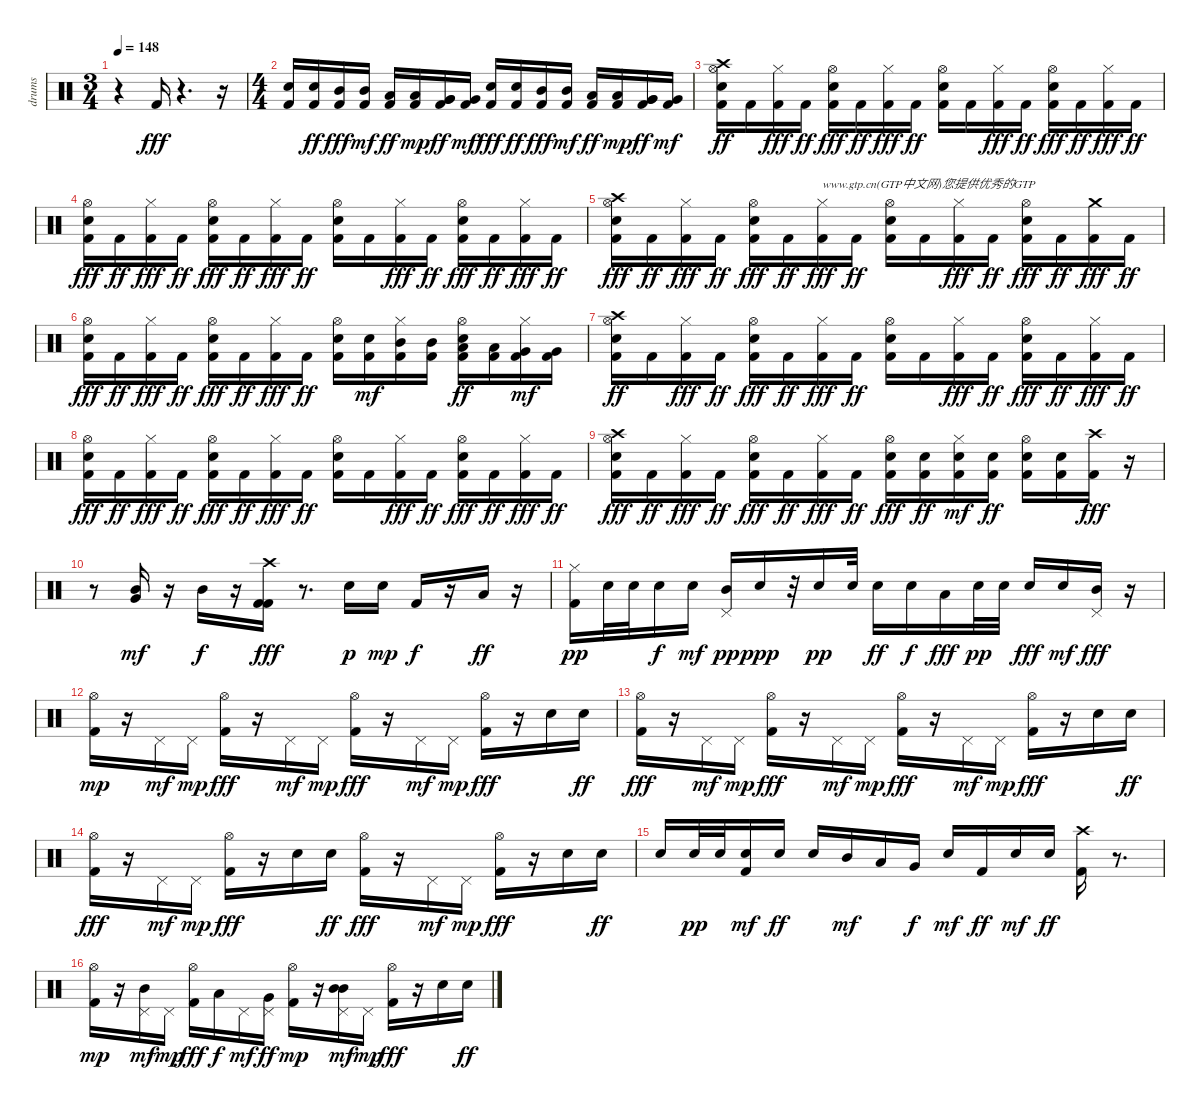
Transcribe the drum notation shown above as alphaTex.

\track ("drums" "drums") {instrument percussion}
\staff {score}
\articulation defaults
\ts (3 4)
\tempo 148
\clef neutral
\ks c
r.4{dy fff} "Kick (hit) 2".16 r.4{d} r.16 |
\ts (4 4)
("Kick (hit) 2" "Snare (hit) 2").16 ("Snare (hit) 2" "Kick (hit) 2").16{dy ff} ("Kick (hit) 2" "Mid Tom (hit)").16{dy fff} ("Kick (hit) 2" "Mid Tom (hit)").16{dy mf} ("Kick (hit) 2" "Low Tom (hit)").16{dy ff} ("Kick (hit) 2" "Low Tom (hit)").16{dy mp} ("Kick (hit) 2" "Very Low Tom (hit)" "Very Low Tom (hit)").16{dy ff} ("Kick (hit) 2" "Very Low Tom (hit)").16{dy mf} ("Kick (hit) 2" "Snare (hit) 2").16{dy fff} ("Snare (hit) 2" "Kick (hit) 2").16{dy ff} ("Kick (hit) 2" "Mid Tom (hit)").16{dy fff} ("Kick (hit) 2" "Mid Tom (hit)").16{dy mf} ("Kick (hit) 2" "Low Tom (hit)").16{dy ff} ("Kick (hit) 2" "Low Tom (hit)").16{dy mp} ("Kick (hit) 2" "Very Low Tom (hit)" "Very Low Tom (hit)").16{dy ff} ("Kick (hit) 2" "Very Low Tom (hit)").16{dy mf} |
("Hi-Hat (open)" "Crash high (hit)" "Kick (hit) 2" "Electric Snare (hit)").16{dy ff} "Kick (hit) 2".16 ("Hi-Hat (closed)" "Kick (hit) 2").16{dy fff} "Kick (hit) 2".16{dy ff} ("Hi-Hat (open)" "Electric Snare (hit)" "Kick (hit) 2").16{dy fff} "Kick (hit) 2".16{dy ff} ("Hi-Hat (closed)" "Kick (hit) 2").16{dy fff} "Kick (hit) 2".16{dy ff} ("Hi-Hat (open)" "Kick (hit) 2" "Electric Snare (hit)").16 "Kick (hit) 2".16 ("Hi-Hat (closed)" "Kick (hit) 2").16{dy fff} "Kick (hit) 2".16{dy ff} ("Hi-Hat (open)" "Electric Snare (hit)" "Kick (hit) 2").16{dy fff} "Kick (hit) 2".16{dy ff} ("Hi-Hat (closed)" "Kick (hit) 2").16{dy fff} "Kick (hit) 2".16{dy ff} |
("Hi-Hat (open)" "Electric Snare (hit)" "Kick (hit) 2").16{dy fff} "Kick (hit) 2".16{dy ff} ("Hi-Hat (closed)" "Kick (hit) 2").16{dy fff} "Kick (hit) 2".16{dy ff} ("Hi-Hat (open)" "Electric Snare (hit)" "Kick (hit) 2").16{dy fff} "Kick (hit) 2".16{dy ff} ("Hi-Hat (closed)" "Kick (hit) 2").16{dy fff} "Kick (hit) 2".16{dy ff} ("Hi-Hat (open)" "Kick (hit) 2" "Electric Snare (hit)").16 "Kick (hit) 2".16 ("Hi-Hat (closed)" "Kick (hit) 2").16{dy fff} "Kick (hit) 2".16{dy ff} ("Hi-Hat (open)" "Electric Snare (hit)" "Kick (hit) 2").16{dy fff} "Kick (hit) 2".16{dy ff} ("Hi-Hat (closed)" "Kick (hit) 2").16{dy fff} "Kick (hit) 2".16{dy ff} |
("Hi-Hat (open)" "Crash high (hit)" "Electric Snare (hit)" "Kick (hit) 2").16{dy fff} "Kick (hit) 2".16{dy ff} ("Hi-Hat (closed)" "Kick (hit) 2").16{dy fff} "Kick (hit) 2".16{dy ff} ("Hi-Hat (open)" "Electric Snare (hit)" "Kick (hit) 2").16{dy fff} "Kick (hit) 2".16{dy ff} ("Hi-Hat (closed)" "Kick (hit) 2").16{txt "www.gtp.cn(GTP中文网)您提供优秀的GTP" dy fff} "Kick (hit) 2".16{dy ff} ("Hi-Hat (open)" "Kick (hit) 2" "Electric Snare (hit)").16 "Kick (hit) 2".16 ("Hi-Hat (closed)" "Kick (hit) 2").16{dy fff} "Kick (hit) 2".16{dy ff} ("Hi-Hat (open)" "Electric Snare (hit)" "Kick (hit) 2").16{dy fff} "Kick (hit) 2".16{dy ff} ("Kick (hit) 2" "Crash medium (hit)").16{dy fff} "Kick (hit) 2".16{dy ff} |
("Hi-Hat (open)" "Electric Snare (hit)" "Kick (hit) 2").16{dy fff} "Kick (hit) 2".16{dy ff} ("Hi-Hat (closed)" "Kick (hit) 2").16{dy fff} "Kick (hit) 2".16{dy ff} ("Hi-Hat (open)" "Electric Snare (hit)" "Kick (hit) 2").16{dy fff} "Kick (hit) 2".16{dy ff} ("Hi-Hat (closed)" "Kick (hit) 2").16{dy fff} "Kick (hit) 2".16{dy ff} ("Hi-Hat (open)" "Kick (hit) 2" "Electric Snare (hit)").16 ("Kick (hit) 2" "Snare (hit) 2").16{dy mf} ("Kick (hit) 2" "Mid Tom (hit)" "Hi-Hat (closed)").16 ("Kick (hit) 2" "Mid Tom (hit)").16 ("Hi-Hat (open)" "Low Tom (hit)" "Kick (hit) 2" "Electric Snare (hit)").16{dy ff} ("Low Tom (hit)" "Kick (hit) 2").16 ("Kick (hit) 2" "Very Low Tom (hit)" "Hi-Hat (closed)").16{dy mf} ("Kick (hit) 2" "Very Low Tom (hit)").16 |
("Hi-Hat (open)" "Crash high (hit)" "Kick (hit) 2" "Electric Snare (hit)").16{dy ff} "Kick (hit) 2".16 ("Hi-Hat (closed)" "Kick (hit) 2").16{dy fff} "Kick (hit) 2".16{dy ff} ("Hi-Hat (open)" "Electric Snare (hit)" "Kick (hit) 2").16{dy fff} "Kick (hit) 2".16{dy ff} ("Hi-Hat (closed)" "Kick (hit) 2").16{dy fff} "Kick (hit) 2".16{dy ff} ("Hi-Hat (open)" "Kick (hit) 2" "Electric Snare (hit)").16 "Kick (hit) 2".16 ("Hi-Hat (closed)" "Kick (hit) 2").16{dy fff} "Kick (hit) 2".16{dy ff} ("Hi-Hat (open)" "Electric Snare (hit)" "Kick (hit) 2").16{dy fff} "Kick (hit) 2".16{dy ff} ("Hi-Hat (closed)" "Kick (hit) 2").16{dy fff} "Kick (hit) 2".16{dy ff} |
("Hi-Hat (open)" "Electric Snare (hit)" "Kick (hit) 2").16{dy fff} "Kick (hit) 2".16{dy ff} ("Hi-Hat (closed)" "Kick (hit) 2").16{dy fff} "Kick (hit) 2".16{dy ff} ("Hi-Hat (open)" "Electric Snare (hit)" "Kick (hit) 2").16{dy fff} "Kick (hit) 2".16{dy ff} ("Hi-Hat (closed)" "Kick (hit) 2").16{dy fff} "Kick (hit) 2".16{dy ff} ("Hi-Hat (open)" "Kick (hit) 2" "Electric Snare (hit)").16 "Kick (hit) 2".16 ("Hi-Hat (closed)" "Kick (hit) 2").16{dy fff} "Kick (hit) 2".16{dy ff} ("Hi-Hat (open)" "Electric Snare (hit)" "Kick (hit) 2").16{dy fff} "Kick (hit) 2".16{dy ff} ("Hi-Hat (closed)" "Kick (hit) 2").16{dy fff} "Kick (hit) 2".16{dy ff} |
("Hi-Hat (open)" "Crash high (hit)" "Electric Snare (hit)" "Kick (hit) 2").16{dy fff} "Kick (hit) 2".16{dy ff} ("Hi-Hat (closed)" "Kick (hit) 2").16{dy fff} "Kick (hit) 2".16{dy ff} ("Hi-Hat (open)" "Electric Snare (hit)" "Kick (hit) 2").16{dy fff} "Kick (hit) 2".16{dy ff} ("Hi-Hat (closed)" "Kick (hit) 2").16{dy fff} "Kick (hit) 2".16{dy ff} ("Hi-Hat (open)" "Kick (hit) 2" "Electric Snare (hit)").16{dy fff} ("Kick (hit) 2" "Electric Snare (hit)").16{dy ff} ("Kick (hit) 2" "Hi-Hat (closed)" "Electric Snare (hit)").16{dy mf} ("Kick (hit) 2" "Electric Snare (hit)").16{dy ff} ("Hi-Hat (open)" "Kick (hit) 2" "Electric Snare (hit)").16 ("Kick (hit) 2" "Electric Snare (hit)").16 ("Crash high (hit)" "Kick (hit) 2").16{dy fff} r.16 |
r.8 ("Very Low Tom (hit)" "Mid Tom (hit)").16{dy mf} r.16 "Mid Tom (hit)".16{dy f} r.16 ("Kick (hit) 2" "Kick (hit) 2" "Crash high (hit)").16{dy fff} r.8{d} "Snare (hit) 2".16{dy p} "Snare (hit) 2".16{dy mp} "Kick (hit) 2".16{dy f} r.16 "Low Tom (hit)".16{dy ff} r.16 |
("Kick (hit) 2" "Hi-Hat (closed)").16{dy pp} "Snare (hit) 2".32 "Snare (hit) 2".32 "Electric Snare (hit)".16{dy f} "Electric Snare (hit)".16{dy mf} ("Mid Tom (hit)" "Pedal Hi-Hat (hit)").16{dy pp} "Snare (hit) 2".16{dy ppp} r.32 "Snare (hit) 2".16{dy pp} "Snare (hit) 2".32 "Snare (hit) 2".16{dy ff} "Electric Snare (hit)".16{dy f} "Low Tom (hit)".16{dy fff} "Snare (hit) 2".32{dy pp} "Snare (hit) 2".32 "Snare (hit) 2".16{dy fff} "Electric Snare (hit)".16{dy mf} ("Mid Tom (hit)" "Pedal Hi-Hat (hit)").16{dy fff} r.16 |
("Kick (hit) 2" "Hi-Hat (open)").16{dy mp} r.16 "Pedal Hi-Hat (hit)".16{dy mf} "Pedal Hi-Hat (hit)".16{dy mp} ("Hi-Hat (open)" "Kick (hit) 2").16{dy fff} r.16 "Pedal Hi-Hat (hit)".16{dy mf} "Pedal Hi-Hat (hit)".16{dy mp} ("Hi-Hat (open)" "Kick (hit) 2").16{dy fff} r.16 "Pedal Hi-Hat (hit)".16{dy mf} "Pedal Hi-Hat (hit)".16{dy mp} ("Hi-Hat (open)" "Kick (hit) 2").16{dy fff} r.16 "Electric Snare (hit)".16 "Electric Snare (hit)".16{dy ff} |
("Hi-Hat (open)" "Kick (hit) 2").16{dy fff} r.16 "Pedal Hi-Hat (hit)".16{dy mf} "Pedal Hi-Hat (hit)".16{dy mp} ("Hi-Hat (open)" "Kick (hit) 2").16{dy fff} r.16 "Pedal Hi-Hat (hit)".16{dy mf} "Pedal Hi-Hat (hit)".16{dy mp} ("Hi-Hat (open)" "Kick (hit) 2").16{dy fff} r.16 "Pedal Hi-Hat (hit)".16{dy mf} "Pedal Hi-Hat (hit)".16{dy mp} ("Hi-Hat (open)" "Kick (hit) 2").16{dy fff} r.16 "Electric Snare (hit)".16 "Electric Snare (hit)".16{dy ff} |
("Hi-Hat (open)" "Kick (hit) 2").16{dy fff} r.16 "Pedal Hi-Hat (hit)".16{dy mf} "Pedal Hi-Hat (hit)".16{dy mp} ("Hi-Hat (open)" "Kick (hit) 2").16{dy fff} r.16 "Electric Snare (hit)".16 "Electric Snare (hit)".16{dy ff} ("Hi-Hat (open)" "Kick (hit) 2").16{dy fff} r.16 "Pedal Hi-Hat (hit)".16{dy mf} "Pedal Hi-Hat (hit)".16{dy mp} ("Hi-Hat (open)" "Kick (hit) 2").16{dy fff} r.16 "Electric Snare (hit)".16 "Electric Snare (hit)".16{dy ff} |
"Electric Snare (hit)".16 "Snare (hit) 2".32{dy pp} "Snare (hit) 2".32 ("Kick (hit) 2" "Electric Snare (hit)").16{dy mf} "Electric Snare (hit)".16{dy ff} "Electric Snare (hit)".16 "Mid Tom (hit)".16{dy mf} "Low Tom (hit)".16 "Very Low Tom (hit)".16{dy f} "Snare (hit) 2".16{dy mf} "Kick (hit) 2".16{dy ff} "Electric Snare (hit)".16{dy mf} "Electric Snare (hit)".16{dy ff} ("Kick (hit) 2" "Crash high (hit)").16 r.8{d} |
("Kick (hit) 2" "Hi-Hat (open)").16{dy mp} r.16 ("Pedal Hi-Hat (hit)" "Mid Tom (hit)").16{dy mf} "Pedal Hi-Hat (hit)".16{dy mp} ("Hi-Hat (open)" "Kick (hit) 2").16{dy fff} "Low Tom (hit)".16{dy f} "Pedal Hi-Hat (hit)".16{dy mf} ("Pedal Hi-Hat (hit)" "Very Low Tom (hit)").16{dy ff} ("Kick (hit) 2" "Hi-Hat (open)").16{dy mp} r.16 ("Pedal Hi-Hat (hit)" "Mid Tom (hit)" "Mid Tom (hit)").16{dy mf} "Pedal Hi-Hat (hit)".16{dy mp} ("Hi-Hat (open)" "Kick (hit) 2").16{dy fff} r.16 "Electric Snare (hit)".16 "Electric Snare (hit)".16{dy ff}
